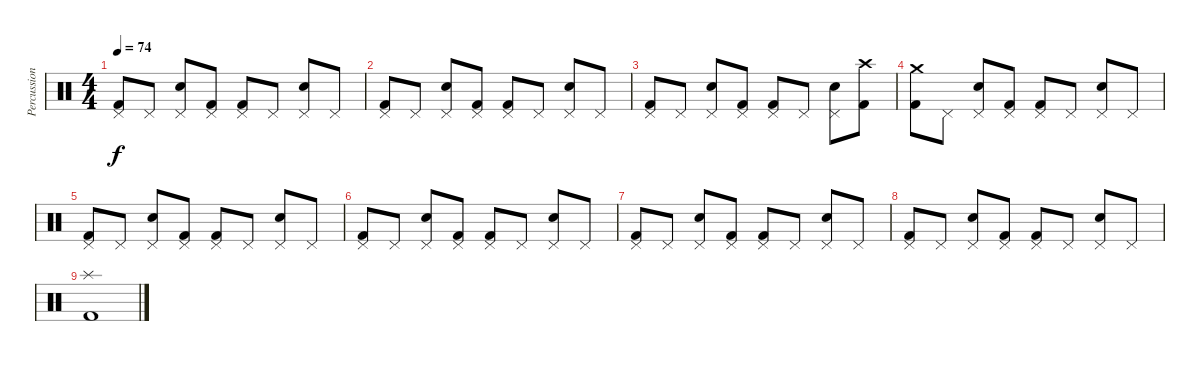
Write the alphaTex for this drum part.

\track ("Percussion" "Percussion") {instrument percussion}
\staff {score}
\articulation defaults
\ts (4 4)
\tempo 74
\clef neutral
\ks c
("Pedal Hi-Hat (hit)" "Kick (hit) 2").8{dy f} "Pedal Hi-Hat (hit)".8 ("Pedal Hi-Hat (hit)" "Snare (hit) 2").8 ("Pedal Hi-Hat (hit)" "Kick (hit) 2").8 ("Pedal Hi-Hat (hit)" "Kick (hit) 2").8 "Pedal Hi-Hat (hit)".8 ("Pedal Hi-Hat (hit)" "Snare (hit) 2").8 "Pedal Hi-Hat (hit)".8 |
("Pedal Hi-Hat (hit)" "Kick (hit) 2").8 "Pedal Hi-Hat (hit)".8 ("Pedal Hi-Hat (hit)" "Snare (hit) 2").8 ("Pedal Hi-Hat (hit)" "Kick (hit) 2").8 ("Pedal Hi-Hat (hit)" "Kick (hit) 2").8 "Pedal Hi-Hat (hit)".8 ("Pedal Hi-Hat (hit)" "Snare (hit) 2").8 "Pedal Hi-Hat (hit)".8 |
("Pedal Hi-Hat (hit)" "Kick (hit) 2").8 "Pedal Hi-Hat (hit)".8 ("Pedal Hi-Hat (hit)" "Snare (hit) 2").8 ("Pedal Hi-Hat (hit)" "Kick (hit) 2").8 ("Pedal Hi-Hat (hit)" "Kick (hit) 2").8 "Pedal Hi-Hat (hit)".8 ("Pedal Hi-Hat (hit)" "Snare (hit) 2").8 ("Crash high (hit)" "Kick (hit) 2").8 |
("Crash medium (hit)" "Kick (hit) 2").8 "Pedal Hi-Hat (hit)".8 ("Pedal Hi-Hat (hit)" "Snare (hit) 2").8 ("Pedal Hi-Hat (hit)" "Kick (hit) 2").8 ("Pedal Hi-Hat (hit)" "Kick (hit) 2").8 "Pedal Hi-Hat (hit)".8 ("Pedal Hi-Hat (hit)" "Snare (hit) 2").8 "Pedal Hi-Hat (hit)".8 |
("Pedal Hi-Hat (hit)" "Kick (hit) 2").8 "Pedal Hi-Hat (hit)".8 ("Pedal Hi-Hat (hit)" "Snare (hit) 2").8 ("Pedal Hi-Hat (hit)" "Kick (hit) 2").8 ("Pedal Hi-Hat (hit)" "Kick (hit) 2").8 "Pedal Hi-Hat (hit)".8 ("Pedal Hi-Hat (hit)" "Snare (hit) 2").8 "Pedal Hi-Hat (hit)".8 |
("Pedal Hi-Hat (hit)" "Kick (hit) 2").8 "Pedal Hi-Hat (hit)".8 ("Pedal Hi-Hat (hit)" "Snare (hit) 2").8 ("Pedal Hi-Hat (hit)" "Kick (hit) 2").8 ("Pedal Hi-Hat (hit)" "Kick (hit) 2").8 "Pedal Hi-Hat (hit)".8 ("Pedal Hi-Hat (hit)" "Snare (hit) 2").8 "Pedal Hi-Hat (hit)".8 |
("Pedal Hi-Hat (hit)" "Kick (hit) 2").8 "Pedal Hi-Hat (hit)".8 ("Pedal Hi-Hat (hit)" "Snare (hit) 2").8 ("Pedal Hi-Hat (hit)" "Kick (hit) 2").8 ("Pedal Hi-Hat (hit)" "Kick (hit) 2").8 "Pedal Hi-Hat (hit)".8 ("Pedal Hi-Hat (hit)" "Snare (hit) 2").8 "Pedal Hi-Hat (hit)".8 |
("Pedal Hi-Hat (hit)" "Kick (hit) 2").8 "Pedal Hi-Hat (hit)".8 ("Pedal Hi-Hat (hit)" "Snare (hit) 2").8 ("Pedal Hi-Hat (hit)" "Kick (hit) 2").8 ("Pedal Hi-Hat (hit)" "Kick (hit) 2").8 "Pedal Hi-Hat (hit)".8 ("Pedal Hi-Hat (hit)" "Snare (hit) 2").8 "Pedal Hi-Hat (hit)".8 |
("Splash (hit)" "Kick (hit) 2").1
